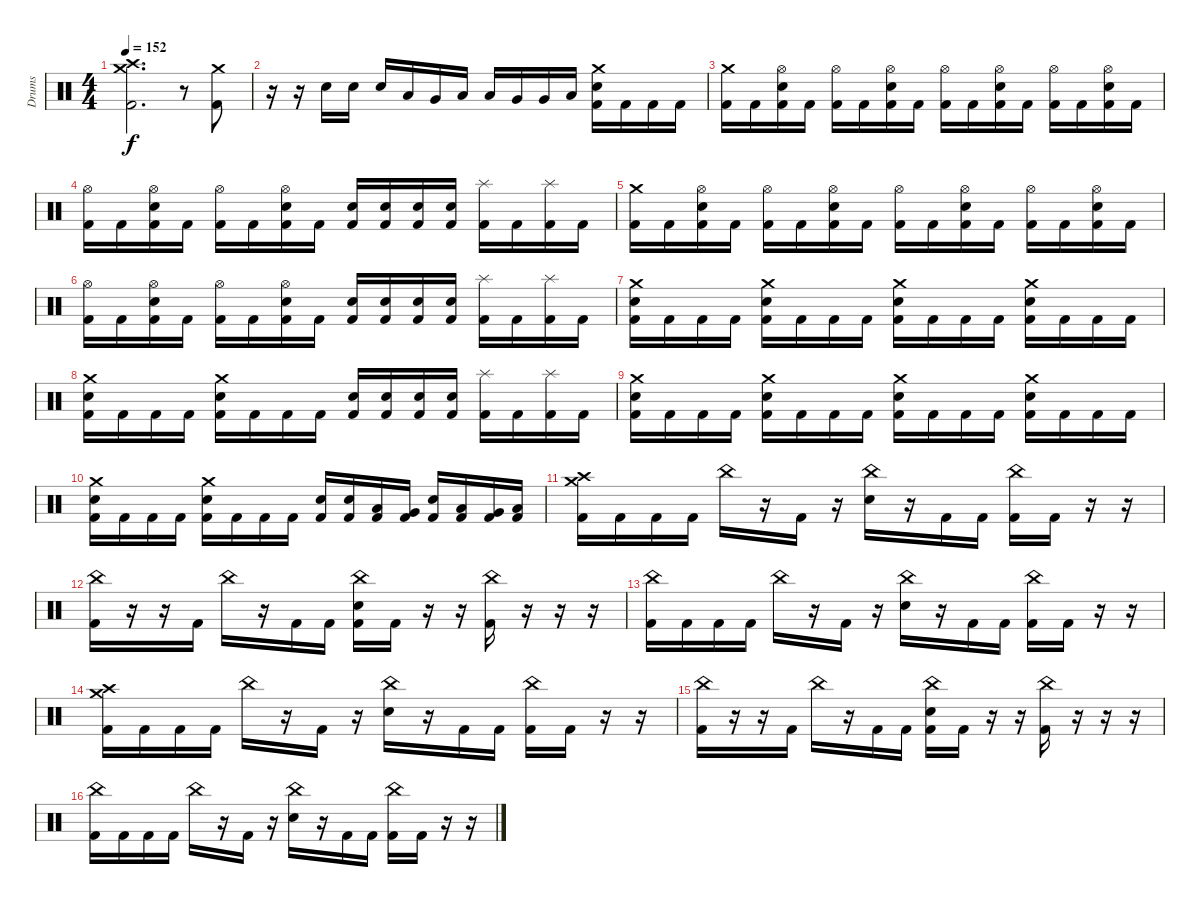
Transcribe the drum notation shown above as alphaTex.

\track ("Drums" "Drums") {instrument percussion}
\staff {score}
\articulation defaults
\ts (4 4)
\tempo 152
\clef neutral
\ks c
("Crash medium (hit)" "Crash high (hit)" "Kick (hit) 2").2{d dy f} r.8 ("Crash medium (hit)" "Kick (hit) 2").8 |
r.16 r.16 "Electric Snare (hit)".16 "Electric Snare (hit)".16 "Electric Snare (hit)".16 "Low Tom (hit)".16 "Very Low Tom (hit)".16 "Low Floor Tom (hit)".16 "Low Tom (hit)".16 "Very Low Tom (hit)".16 "Very Low Tom (hit)".16 "Low Floor Tom (hit)".16 ("Crash medium (hit)" "Electric Snare (hit)" "Kick (hit) 2").16 "Kick (hit) 2".16 "Kick (hit) 2".16 "Kick (hit) 2".16 |
("Crash medium (hit)" "Kick (hit) 2").16 "Kick (hit) 2".16 ("Hi-Hat (open)" "Electric Snare (hit)" "Kick (hit) 2").16 "Kick (hit) 2".16 ("Hi-Hat (open)" "Kick (hit) 2").16 "Kick (hit) 2".16 ("Hi-Hat (open)" "Electric Snare (hit)" "Kick (hit) 2").16 "Kick (hit) 2".16 ("Hi-Hat (open)" "Kick (hit) 2").16 "Kick (hit) 2".16 ("Hi-Hat (open)" "Electric Snare (hit)" "Kick (hit) 2").16 "Kick (hit) 2".16 ("Hi-Hat (open)" "Kick (hit) 2").16 "Kick (hit) 2".16 ("Hi-Hat (open)" "Electric Snare (hit)" "Kick (hit) 2").16 "Kick (hit) 2".16 |
("Hi-Hat (open)" "Kick (hit) 2").16 "Kick (hit) 2".16 ("Hi-Hat (open)" "Electric Snare (hit)" "Kick (hit) 2").16 "Kick (hit) 2".16 ("Hi-Hat (open)" "Kick (hit) 2").16 "Kick (hit) 2".16 ("Hi-Hat (open)" "Electric Snare (hit)" "Kick (hit) 2").16 "Kick (hit) 2".16 ("Electric Snare (hit)" "Kick (hit) 2").16 ("Electric Snare (hit)" "Kick (hit) 2").16 ("Electric Snare (hit)" "Kick (hit) 2").16 ("Electric Snare (hit)" "Kick (hit) 2").16 ("Splash (hit)" "Kick (hit) 2").16 "Kick (hit) 2".16 ("Splash (hit)" "Kick (hit) 2").16 "Kick (hit) 2".16 |
("Crash medium (hit)" "Kick (hit) 2").16 "Kick (hit) 2".16 ("Hi-Hat (open)" "Electric Snare (hit)" "Kick (hit) 2").16 "Kick (hit) 2".16 ("Hi-Hat (open)" "Kick (hit) 2").16 "Kick (hit) 2".16 ("Hi-Hat (open)" "Electric Snare (hit)" "Kick (hit) 2").16 "Kick (hit) 2".16 ("Hi-Hat (open)" "Kick (hit) 2").16 "Kick (hit) 2".16 ("Hi-Hat (open)" "Electric Snare (hit)" "Kick (hit) 2").16 "Kick (hit) 2".16 ("Hi-Hat (open)" "Kick (hit) 2").16 "Kick (hit) 2".16 ("Hi-Hat (open)" "Electric Snare (hit)" "Kick (hit) 2").16 "Kick (hit) 2".16 |
("Hi-Hat (open)" "Kick (hit) 2").16 "Kick (hit) 2".16 ("Hi-Hat (open)" "Electric Snare (hit)" "Kick (hit) 2").16 "Kick (hit) 2".16 ("Hi-Hat (open)" "Kick (hit) 2").16 "Kick (hit) 2".16 ("Hi-Hat (open)" "Electric Snare (hit)" "Kick (hit) 2").16 "Kick (hit) 2".16 ("Electric Snare (hit)" "Kick (hit) 2").16 ("Electric Snare (hit)" "Kick (hit) 2").16 ("Electric Snare (hit)" "Kick (hit) 2").16 ("Electric Snare (hit)" "Kick (hit) 2").16 ("Splash (hit)" "Kick (hit) 2").16 "Kick (hit) 2".16 ("Splash (hit)" "Kick (hit) 2").16 "Kick (hit) 2".16 |
("Crash medium (hit)" "Electric Snare (hit)" "Kick (hit) 2").16 "Kick (hit) 2".16 "Kick (hit) 2".16 "Kick (hit) 2".16 ("Crash medium (hit)" "Electric Snare (hit)" "Kick (hit) 2").16 "Kick (hit) 2".16 "Kick (hit) 2".16 "Kick (hit) 2".16 ("Crash medium (hit)" "Electric Snare (hit)" "Kick (hit) 2").16 "Kick (hit) 2".16 "Kick (hit) 2".16 "Kick (hit) 2".16 ("Crash medium (hit)" "Electric Snare (hit)" "Kick (hit) 2").16 "Kick (hit) 2".16 "Kick (hit) 2".16 "Kick (hit) 2".16 |
("Crash medium (hit)" "Electric Snare (hit)" "Kick (hit) 2").16 "Kick (hit) 2".16 "Kick (hit) 2".16 "Kick (hit) 2".16 ("Crash medium (hit)" "Electric Snare (hit)" "Kick (hit) 2").16 "Kick (hit) 2".16 "Kick (hit) 2".16 "Kick (hit) 2".16 ("Electric Snare (hit)" "Kick (hit) 2").16 ("Electric Snare (hit)" "Kick (hit) 2").16 ("Electric Snare (hit)" "Kick (hit) 2").16 ("Electric Snare (hit)" "Kick (hit) 2").16 ("Splash (hit)" "Kick (hit) 2").16 "Kick (hit) 2".16 ("Splash (hit)" "Kick (hit) 2").16 "Kick (hit) 2".16 |
("Crash medium (hit)" "Electric Snare (hit)" "Kick (hit) 2").16 "Kick (hit) 2".16 "Kick (hit) 2".16 "Kick (hit) 2".16 ("Crash medium (hit)" "Electric Snare (hit)" "Kick (hit) 2").16 "Kick (hit) 2".16 "Kick (hit) 2".16 "Kick (hit) 2".16 ("Crash medium (hit)" "Electric Snare (hit)" "Kick (hit) 2").16 "Kick (hit) 2".16 "Kick (hit) 2".16 "Kick (hit) 2".16 ("Crash medium (hit)" "Electric Snare (hit)" "Kick (hit) 2").16 "Kick (hit) 2".16 "Kick (hit) 2".16 "Kick (hit) 2".16 |
("Crash medium (hit)" "Electric Snare (hit)" "Kick (hit) 2").16 "Kick (hit) 2".16 "Kick (hit) 2".16 "Kick (hit) 2".16 ("Crash medium (hit)" "Electric Snare (hit)" "Kick (hit) 2").16 "Kick (hit) 2".16 "Kick (hit) 2".16 "Kick (hit) 2".16 ("Electric Snare (hit)" "Kick (hit) 2").16 ("Electric Snare (hit)" "Kick (hit) 2").16 ("Low Tom (hit)" "Kick (hit) 2").16 ("Very Low Tom (hit)" "Kick (hit) 2").16 ("Electric Snare (hit)" "Kick (hit) 2").16 ("Low Tom (hit)" "Kick (hit) 2").16 ("Very Low Tom (hit)" "Kick (hit) 2").16 ("Low Floor Tom (hit)" "Kick (hit) 2").16 |
("Crash medium (hit)" "Crash high (hit)" "Kick (hit) 2").16 "Kick (hit) 2".16 "Kick (hit) 2".16 "Kick (hit) 2".16 "China (hit)".16 r.16 "Kick (hit) 2".16 r.16 ("China (hit)" "Electric Snare (hit)").16 r.16 "Kick (hit) 2".16 "Kick (hit) 2".16 ("China (hit)" "Kick (hit) 2").16 "Kick (hit) 2".16 r.16 r.16 |
("China (hit)" "Kick (hit) 2").16 r.16 r.16 "Kick (hit) 2".16 "China (hit)".16 r.16 "Kick (hit) 2".16 "Kick (hit) 2".16 ("China (hit)" "Electric Snare (hit)" "Kick (hit) 2").16 "Kick (hit) 2".16 r.16 r.16 ("China (hit)" "Kick (hit) 2").16 r.16 r.16 r.16 |
("China (hit)" "Kick (hit) 2").16 "Kick (hit) 2".16 "Kick (hit) 2".16 "Kick (hit) 2".16 "China (hit)".16 r.16 "Kick (hit) 2".16 r.16 ("China (hit)" "Electric Snare (hit)").16 r.16 "Kick (hit) 2".16 "Kick (hit) 2".16 ("China (hit)" "Kick (hit) 2").16 "Kick (hit) 2".16 r.16 r.16 |
("Crash medium (hit)" "Crash high (hit)" "Kick (hit) 2").16 "Kick (hit) 2".16 "Kick (hit) 2".16 "Kick (hit) 2".16 "China (hit)".16 r.16 "Kick (hit) 2".16 r.16 ("China (hit)" "Electric Snare (hit)").16 r.16 "Kick (hit) 2".16 "Kick (hit) 2".16 ("China (hit)" "Kick (hit) 2").16 "Kick (hit) 2".16 r.16 r.16 |
("China (hit)" "Kick (hit) 2").16 r.16 r.16 "Kick (hit) 2".16 "China (hit)".16 r.16 "Kick (hit) 2".16 "Kick (hit) 2".16 ("China (hit)" "Electric Snare (hit)" "Kick (hit) 2").16 "Kick (hit) 2".16 r.16 r.16 ("China (hit)" "Kick (hit) 2").16 r.16 r.16 r.16 |
("China (hit)" "Kick (hit) 2").16 "Kick (hit) 2".16 "Kick (hit) 2".16 "Kick (hit) 2".16 "China (hit)".16 r.16 "Kick (hit) 2".16 r.16 ("China (hit)" "Electric Snare (hit)").16 r.16 "Kick (hit) 2".16 "Kick (hit) 2".16 ("China (hit)" "Kick (hit) 2").16 "Kick (hit) 2".16 r.16 r.16
